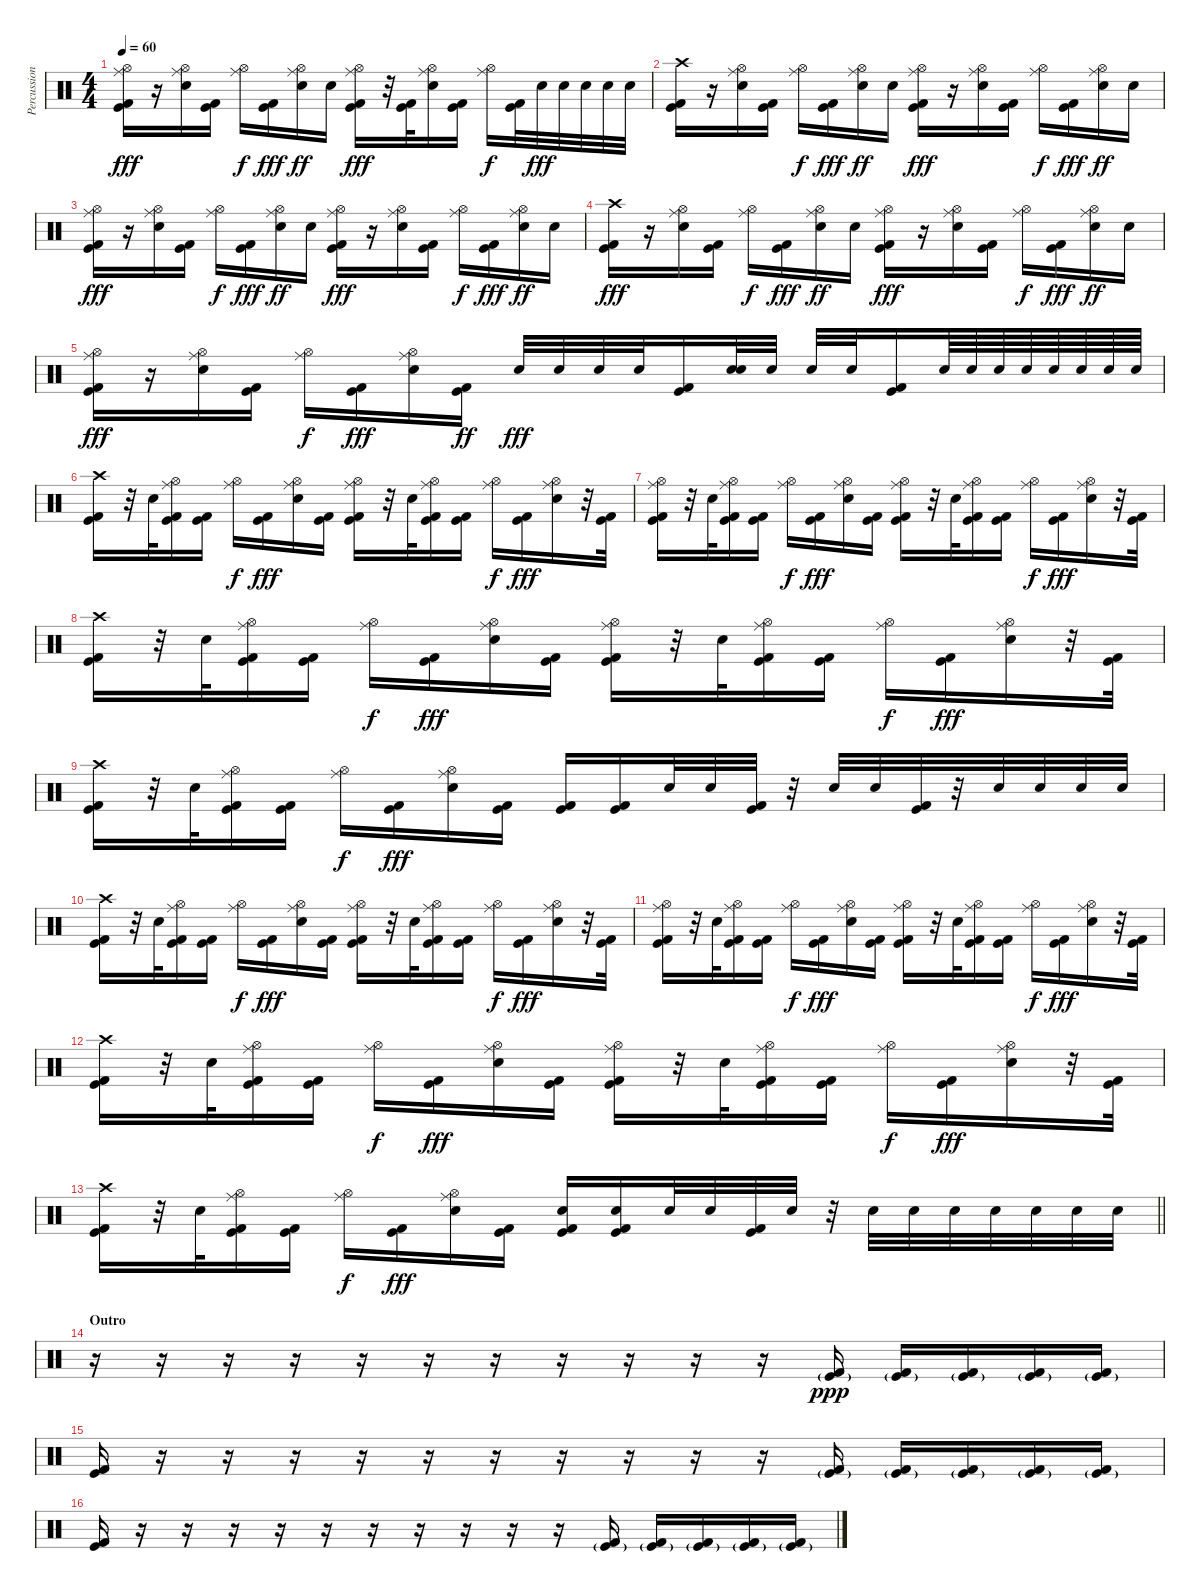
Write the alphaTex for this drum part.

\track ("Percussion" "Percussion") {instrument percussion}
\staff {score}
\articulation defaults
\ts (4 4)
\tempo 60
\clef neutral
\ks c
("Hi-Hat (open)" "Ride (middle)" "Kick (hit)" "Kick (hit) 2").16{dy fff} r.16 ("Hi-Hat (open)" "Ride (middle)" "Electric Snare (hit)").16 ("Kick (hit)" "Kick (hit) 2").16 ("Hi-Hat (open)" "Ride (middle)").16{dy f} ("Kick (hit)" "Kick (hit) 2").16{dy fff} ("Hi-Hat (open)" "Ride (middle)" "Electric Snare (hit)").16{dy ff} "Electric Snare (hit)".16 ("Hi-Hat (open)" "Ride (middle)" "Kick (hit)" "Kick (hit) 2").16{dy fff} r.32 ("Kick (hit)" "Kick (hit) 2").32 ("Hi-Hat (open)" "Ride (middle)" "Electric Snare (hit)").16 ("Kick (hit)" "Kick (hit) 2").16 ("Hi-Hat (open)" "Ride (middle)").16{dy f} ("Kick (hit)" "Kick (hit) 2").32 "Electric Snare (hit)".32{dy fff} "Electric Snare (hit)".32 "Electric Snare (hit)".32 "Electric Snare (hit)".32 "Electric Snare (hit)".32 |
("Crash high (hit)" "Kick (hit)" "Kick (hit) 2").16 r.16 ("Hi-Hat (open)" "Ride (middle)" "Electric Snare (hit)").16 ("Kick (hit)" "Kick (hit) 2").16 ("Hi-Hat (open)" "Ride (middle)").16{dy f} ("Kick (hit)" "Kick (hit) 2").16{dy fff} ("Hi-Hat (open)" "Ride (middle)" "Electric Snare (hit)").16{dy ff} "Electric Snare (hit)".16 ("Hi-Hat (open)" "Ride (middle)" "Kick (hit)" "Kick (hit) 2").16{dy fff} r.16 ("Hi-Hat (open)" "Ride (middle)" "Electric Snare (hit)").16 ("Kick (hit)" "Kick (hit) 2").16 ("Hi-Hat (open)" "Ride (middle)").16{dy f} ("Kick (hit)" "Kick (hit) 2").16{dy fff} ("Hi-Hat (open)" "Ride (middle)" "Electric Snare (hit)").16{dy ff} "Electric Snare (hit)".16 |
("Hi-Hat (open)" "Ride (middle)" "Kick (hit)" "Kick (hit) 2").16{dy fff} r.16 ("Hi-Hat (open)" "Ride (middle)" "Electric Snare (hit)").16 ("Kick (hit)" "Kick (hit) 2").16 ("Hi-Hat (open)" "Ride (middle)").16{dy f} ("Kick (hit)" "Kick (hit) 2").16{dy fff} ("Hi-Hat (open)" "Ride (middle)" "Electric Snare (hit)").16{dy ff} "Electric Snare (hit)".16 ("Hi-Hat (open)" "Ride (middle)" "Kick (hit)" "Kick (hit) 2").16{dy fff} r.16 ("Hi-Hat (open)" "Ride (middle)" "Electric Snare (hit)").16 ("Kick (hit)" "Kick (hit) 2").16 ("Hi-Hat (open)" "Ride (middle)").16{dy f} ("Kick (hit)" "Kick (hit) 2").16{dy fff} ("Hi-Hat (open)" "Ride (middle)" "Electric Snare (hit)").16{dy ff} "Electric Snare (hit)".16 |
("Crash high (hit)" "Kick (hit)" "Kick (hit) 2").16{dy fff} r.16 ("Hi-Hat (open)" "Ride (middle)" "Electric Snare (hit)").16 ("Kick (hit)" "Kick (hit) 2").16 ("Hi-Hat (open)" "Ride (middle)").16{dy f} ("Kick (hit)" "Kick (hit) 2").16{dy fff} ("Hi-Hat (open)" "Ride (middle)" "Electric Snare (hit)").16{dy ff} "Electric Snare (hit)".16 ("Hi-Hat (open)" "Ride (middle)" "Kick (hit)" "Kick (hit) 2").16{dy fff} r.16 ("Hi-Hat (open)" "Ride (middle)" "Electric Snare (hit)").16 ("Kick (hit)" "Kick (hit) 2").16 ("Hi-Hat (open)" "Ride (middle)").16{dy f} ("Kick (hit)" "Kick (hit) 2").16{dy fff} ("Hi-Hat (open)" "Ride (middle)" "Electric Snare (hit)").16{dy ff} "Electric Snare (hit)".16 |
("Hi-Hat (open)" "Ride (middle)" "Kick (hit)" "Kick (hit) 2").16{dy fff} r.16 ("Hi-Hat (open)" "Ride (middle)" "Electric Snare (hit)").16 ("Kick (hit)" "Kick (hit) 2").16 ("Hi-Hat (open)" "Ride (middle)").16{dy f} ("Kick (hit)" "Kick (hit) 2").16{dy fff} ("Hi-Hat (open)" "Ride (middle)" "Electric Snare (hit)").16 ("Kick (hit)" "Kick (hit) 2").16{dy ff} "Electric Snare (hit)".32{dy fff} "Electric Snare (hit)".32 "Electric Snare (hit)".32 "Electric Snare (hit)".32 ("Kick (hit)" "Kick (hit) 2").16 ("Electric Snare (hit)" "Electric Snare (hit)").32{bd 480} "Electric Snare (hit)".32 "Electric Snare (hit)".32 "Electric Snare (hit)".32 ("Kick (hit)" "Kick (hit) 2").16 "Electric Snare (hit)".64 "Electric Snare (hit)".64 "Electric Snare (hit)".64 "Electric Snare (hit)".64 "Electric Snare (hit)".64 "Electric Snare (hit)".64 "Electric Snare (hit)".64 "Electric Snare (hit)".64 |
("Crash high (hit)" "Kick (hit)" "Kick (hit) 2").16 r.32 "Electric Snare (hit)".32 ("Hi-Hat (open)" "Ride (middle)" "Kick (hit)" "Kick (hit) 2").16 ("Kick (hit)" "Kick (hit) 2").16 ("Hi-Hat (open)" "Ride (middle)").16{dy f} ("Kick (hit)" "Kick (hit) 2").16{dy fff} ("Hi-Hat (open)" "Ride (middle)" "Electric Snare (hit)").16 ("Kick (hit)" "Kick (hit) 2").16 ("Hi-Hat (open)" "Ride (middle)" "Kick (hit)" "Kick (hit) 2").16 r.32 "Electric Snare (hit)".32 ("Hi-Hat (open)" "Ride (middle)" "Kick (hit)" "Kick (hit) 2").16 ("Kick (hit)" "Kick (hit) 2").16 ("Hi-Hat (open)" "Ride (middle)").16{dy f} ("Kick (hit)" "Kick (hit) 2").16{dy fff} ("Hi-Hat (open)" "Ride (middle)" "Electric Snare (hit)").16 r.32 ("Kick (hit)" "Kick (hit) 2").32 |
("Hi-Hat (open)" "Ride (middle)" "Kick (hit)" "Kick (hit) 2").16 r.32 "Electric Snare (hit)".32 ("Hi-Hat (open)" "Ride (middle)" "Kick (hit)" "Kick (hit) 2").16 ("Kick (hit)" "Kick (hit) 2").16 ("Hi-Hat (open)" "Ride (middle)").16{dy f} ("Kick (hit)" "Kick (hit) 2").16{dy fff} ("Hi-Hat (open)" "Ride (middle)" "Electric Snare (hit)").16 ("Kick (hit)" "Kick (hit) 2").16 ("Hi-Hat (open)" "Ride (middle)" "Kick (hit)" "Kick (hit) 2").16 r.32 "Electric Snare (hit)".32 ("Hi-Hat (open)" "Ride (middle)" "Kick (hit)" "Kick (hit) 2").16 ("Kick (hit)" "Kick (hit) 2").16 ("Hi-Hat (open)" "Ride (middle)").16{dy f} ("Kick (hit)" "Kick (hit) 2").16{dy fff} ("Hi-Hat (open)" "Ride (middle)" "Electric Snare (hit)").16 r.32 ("Kick (hit)" "Kick (hit) 2").32 |
("Crash high (hit)" "Kick (hit)" "Kick (hit) 2").16 r.32 "Electric Snare (hit)".32 ("Hi-Hat (open)" "Ride (middle)" "Kick (hit)" "Kick (hit) 2").16 ("Kick (hit)" "Kick (hit) 2").16 ("Hi-Hat (open)" "Ride (middle)").16{dy f} ("Kick (hit)" "Kick (hit) 2").16{dy fff} ("Hi-Hat (open)" "Ride (middle)" "Electric Snare (hit)").16 ("Kick (hit)" "Kick (hit) 2").16 ("Hi-Hat (open)" "Ride (middle)" "Kick (hit)" "Kick (hit) 2").16 r.32 "Electric Snare (hit)".32 ("Hi-Hat (open)" "Ride (middle)" "Kick (hit)" "Kick (hit) 2").16 ("Kick (hit)" "Kick (hit) 2").16 ("Hi-Hat (open)" "Ride (middle)").16{dy f} ("Kick (hit)" "Kick (hit) 2").16{dy fff} ("Hi-Hat (open)" "Ride (middle)" "Electric Snare (hit)").16 r.32 ("Kick (hit)" "Kick (hit) 2").32 |
("Crash high (hit)" "Kick (hit)" "Kick (hit) 2").16 r.32 "Electric Snare (hit)".32 ("Hi-Hat (open)" "Ride (middle)" "Kick (hit)" "Kick (hit) 2").16 ("Kick (hit)" "Kick (hit) 2").16 ("Hi-Hat (open)" "Ride (middle)").16{dy f} ("Kick (hit)" "Kick (hit) 2").16{dy fff} ("Hi-Hat (open)" "Ride (middle)" "Electric Snare (hit)").16 ("Kick (hit)" "Kick (hit) 2").16 ("Kick (hit)" "Kick (hit) 2").16 ("Kick (hit)" "Kick (hit) 2").16 "Electric Snare (hit)".32 "Electric Snare (hit)".32 ("Kick (hit)" "Kick (hit) 2").32 r.32 "Electric Snare (hit)".32 "Electric Snare (hit)".32 ("Kick (hit)" "Kick (hit) 2").32 r.32 "Electric Snare (hit)".32 "Electric Snare (hit)".32 "Electric Snare (hit)".32 "Electric Snare (hit)".32 |
("Crash high (hit)" "Kick (hit)" "Kick (hit) 2").16 r.32 "Electric Snare (hit)".32 ("Hi-Hat (open)" "Ride (middle)" "Kick (hit)" "Kick (hit) 2").16 ("Kick (hit)" "Kick (hit) 2").16 ("Hi-Hat (open)" "Ride (middle)").16{dy f} ("Kick (hit)" "Kick (hit) 2").16{dy fff} ("Hi-Hat (open)" "Ride (middle)" "Electric Snare (hit)").16 ("Kick (hit)" "Kick (hit) 2").16 ("Hi-Hat (open)" "Ride (middle)" "Kick (hit)" "Kick (hit) 2").16 r.32 "Electric Snare (hit)".32 ("Hi-Hat (open)" "Ride (middle)" "Kick (hit)" "Kick (hit) 2").16 ("Kick (hit)" "Kick (hit) 2").16 ("Hi-Hat (open)" "Ride (middle)").16{dy f} ("Kick (hit)" "Kick (hit) 2").16{dy fff} ("Hi-Hat (open)" "Ride (middle)" "Electric Snare (hit)").16 r.32 ("Kick (hit)" "Kick (hit) 2").32 |
("Hi-Hat (open)" "Ride (middle)" "Kick (hit)" "Kick (hit) 2").16 r.32 "Electric Snare (hit)".32 ("Hi-Hat (open)" "Ride (middle)" "Kick (hit)" "Kick (hit) 2").16 ("Kick (hit)" "Kick (hit) 2").16 ("Hi-Hat (open)" "Ride (middle)").16{dy f} ("Kick (hit)" "Kick (hit) 2").16{dy fff} ("Hi-Hat (open)" "Ride (middle)" "Electric Snare (hit)").16 ("Kick (hit)" "Kick (hit) 2").16 ("Hi-Hat (open)" "Ride (middle)" "Kick (hit)" "Kick (hit) 2").16 r.32 "Electric Snare (hit)".32 ("Hi-Hat (open)" "Ride (middle)" "Kick (hit)" "Kick (hit) 2").16 ("Kick (hit)" "Kick (hit) 2").16 ("Hi-Hat (open)" "Ride (middle)").16{dy f} ("Kick (hit)" "Kick (hit) 2").16{dy fff} ("Hi-Hat (open)" "Ride (middle)" "Electric Snare (hit)").16 r.32 ("Kick (hit)" "Kick (hit) 2").32 |
("Crash high (hit)" "Kick (hit)" "Kick (hit) 2").16 r.32 "Electric Snare (hit)".32 ("Hi-Hat (open)" "Ride (middle)" "Kick (hit)" "Kick (hit) 2").16 ("Kick (hit)" "Kick (hit) 2").16 ("Hi-Hat (open)" "Ride (middle)").16{dy f} ("Kick (hit)" "Kick (hit) 2").16{dy fff} ("Hi-Hat (open)" "Ride (middle)" "Electric Snare (hit)").16 ("Kick (hit)" "Kick (hit) 2").16 ("Hi-Hat (open)" "Ride (middle)" "Kick (hit)" "Kick (hit) 2").16 r.32 "Electric Snare (hit)".32 ("Hi-Hat (open)" "Ride (middle)" "Kick (hit)" "Kick (hit) 2").16 ("Kick (hit)" "Kick (hit) 2").16 ("Hi-Hat (open)" "Ride (middle)").16{dy f} ("Kick (hit)" "Kick (hit) 2").16{dy fff} ("Hi-Hat (open)" "Ride (middle)" "Electric Snare (hit)").16 r.32 ("Kick (hit)" "Kick (hit) 2").32 |
\barLineRight lightlight
("Crash high (hit)" "Kick (hit)" "Kick (hit) 2").16 r.32 "Electric Snare (hit)".32 ("Hi-Hat (open)" "Ride (middle)" "Kick (hit)" "Kick (hit) 2").16 ("Kick (hit)" "Kick (hit) 2").16 ("Hi-Hat (open)" "Ride (middle)").16{dy f} ("Kick (hit)" "Kick (hit) 2").16{dy fff} ("Hi-Hat (open)" "Ride (middle)" "Electric Snare (hit)").16 ("Kick (hit)" "Kick (hit) 2").16 ("Electric Snare (hit)" "Kick (hit)" "Kick (hit) 2").16 ("Electric Snare (hit)" "Kick (hit)" "Kick (hit) 2").16 "Electric Snare (hit)".32 "Electric Snare (hit)".32 ("Kick (hit)" "Kick (hit) 2").32 "Electric Snare (hit)".32 r.32 "Electric Snare (hit)".32 "Electric Snare (hit)".32 "Electric Snare (hit)".32 "Electric Snare (hit)".32 "Electric Snare (hit)".32 "Electric Snare (hit)".32 "Electric Snare (hit)".32 |
\section ("" "Outro")
r.16 r.16 r.16 r.16 r.16 r.16 r.16 r.16 r.16 r.16 r.16 ("Kick (hit)"{g} "Kick (hit) 2").16{dy ppp} ("Kick (hit)"{g} "Kick (hit) 2").16 ("Kick (hit)"{g} "Kick (hit) 2").16 ("Kick (hit)"{g} "Kick (hit) 2").16 ("Kick (hit)"{g} "Kick (hit) 2").16 |
("Kick (hit)" "Kick (hit) 2").16 r.16 r.16 r.16 r.16 r.16 r.16 r.16 r.16 r.16 r.16 ("Kick (hit)"{g} "Kick (hit) 2").16 ("Kick (hit)"{g} "Kick (hit) 2").16 ("Kick (hit)"{g} "Kick (hit) 2").16 ("Kick (hit)"{g} "Kick (hit) 2").16 ("Kick (hit)"{g} "Kick (hit) 2").16 |
("Kick (hit)" "Kick (hit) 2").16 r.16 r.16 r.16 r.16 r.16 r.16 r.16 r.16 r.16 r.16 ("Kick (hit)"{g} "Kick (hit) 2").16 ("Kick (hit)"{g} "Kick (hit) 2").16 ("Kick (hit)"{g} "Kick (hit) 2").16 ("Kick (hit)"{g} "Kick (hit) 2").16 ("Kick (hit)"{g} "Kick (hit) 2").16
